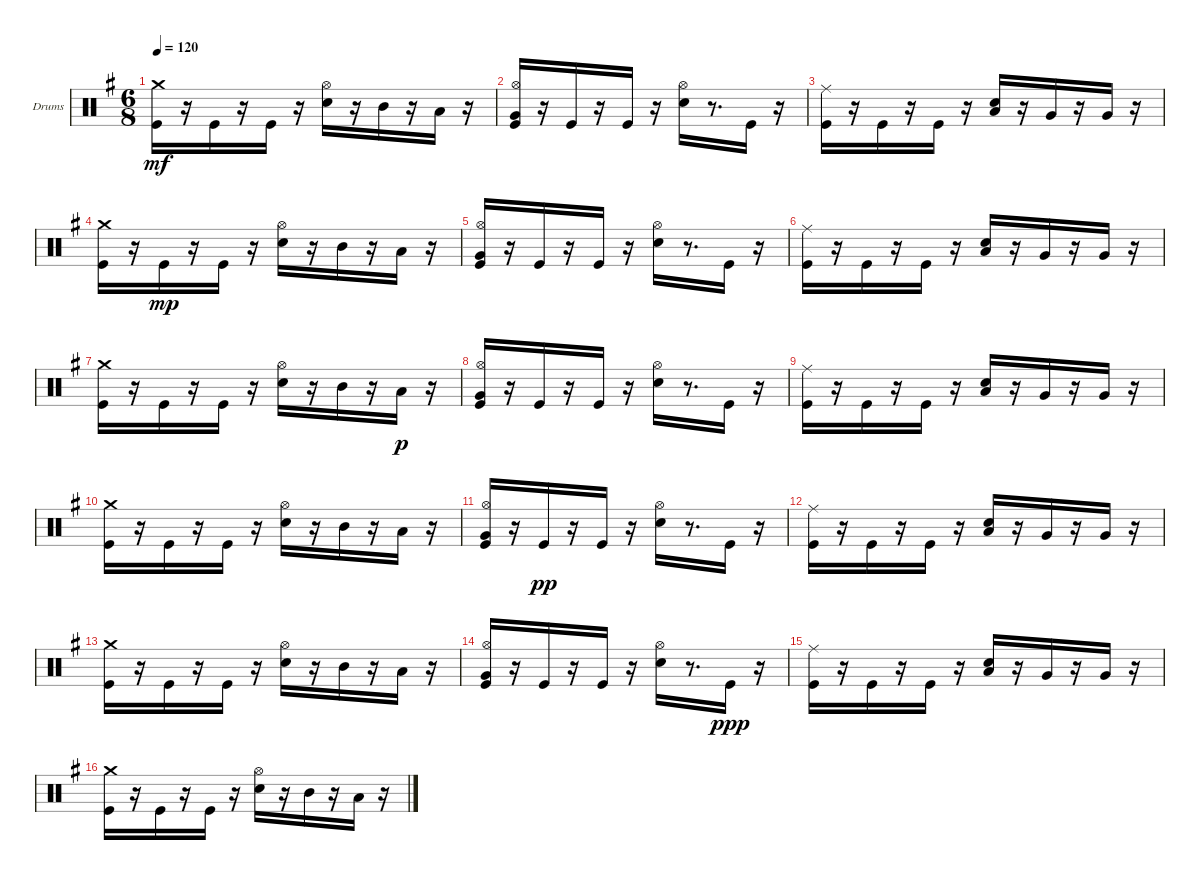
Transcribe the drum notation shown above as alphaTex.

\bracketExtendMode groupsimilarinstruments
\firstSystemTrackNameOrientation horizontal
\otherSystemsTrackNameOrientation horizontal
\track ("Drumkit" "Drums") {instrument percussion}
\staff {score}
\articulation defaults
\ts (6 8)
\tempo 120
\clef neutral
\ks eminor
("Crash medium (hit)" "Kick (hit)").16{dy mf} r.16 "Kick (hit)".16 r.16 "Kick (hit)".16 r.16 ("Hi-Hat (open)" "Snare (hit) 2").16 r.16 "Mid Tom (hit)".16 r.16 "Low Tom (hit)".16 r.16 |
("Hi-Hat (open)" "Very Low Tom (hit)" "Kick (hit)").16 r.16 "Kick (hit)".16 r.16 "Kick (hit)".16 r.16 ("Hi-Hat (open)" "Snare (hit) 2").16 r.8{d} "Kick (hit)".16 r.16 |
("Ride (middle)" "Kick (hit)").16 r.16 "Kick (hit)".16 r.16 "Kick (hit)".16 r.16 ("Low Tom (hit)" "Snare (hit) 2").16 r.16 "Very Low Tom (hit)".16 r.16 "Very Low Tom (hit)".16 r.16 |
("Crash medium (hit)" "Kick (hit)").16 r.16 "Kick (hit)".16{dy mp} r.16 "Kick (hit)".16 r.16 ("Hi-Hat (open)" "Snare (hit) 2").16 r.16 "Mid Tom (hit)".16 r.16 "Low Tom (hit)".16 r.16 |
("Hi-Hat (open)" "Very Low Tom (hit)" "Kick (hit)").16 r.16 "Kick (hit)".16 r.16 "Kick (hit)".16 r.16 ("Hi-Hat (open)" "Snare (hit) 2").16 r.8{d} "Kick (hit)".16 r.16 |
("Ride (middle)" "Kick (hit)").16 r.16 "Kick (hit)".16 r.16 "Kick (hit)".16 r.16 ("Low Tom (hit)" "Snare (hit) 2").16 r.16 "Very Low Tom (hit)".16 r.16 "Very Low Tom (hit)".16 r.16 |
("Crash medium (hit)" "Kick (hit)").16 r.16 "Kick (hit)".16 r.16 "Kick (hit)".16 r.16 ("Hi-Hat (open)" "Snare (hit) 2").16 r.16 "Mid Tom (hit)".16 r.16 "Low Tom (hit)".16{dy p} r.16 |
("Hi-Hat (open)" "Very Low Tom (hit)" "Kick (hit)").16 r.16 "Kick (hit)".16 r.16 "Kick (hit)".16 r.16 ("Hi-Hat (open)" "Snare (hit) 2").16 r.8{d} "Kick (hit)".16 r.16 |
("Ride (middle)" "Kick (hit)").16 r.16 "Kick (hit)".16 r.16 "Kick (hit)".16 r.16 ("Low Tom (hit)" "Snare (hit) 2").16 r.16 "Very Low Tom (hit)".16 r.16 "Very Low Tom (hit)".16 r.16 |
("Crash medium (hit)" "Kick (hit)").16 r.16 "Kick (hit)".16 r.16 "Kick (hit)".16 r.16 ("Hi-Hat (open)" "Snare (hit) 2").16 r.16 "Mid Tom (hit)".16 r.16 "Low Tom (hit)".16 r.16 |
("Hi-Hat (open)" "Very Low Tom (hit)" "Kick (hit)").16 r.16 "Kick (hit)".16{dy pp} r.16 "Kick (hit)".16 r.16 ("Hi-Hat (open)" "Snare (hit) 2").16 r.8{d} "Kick (hit)".16 r.16 |
("Ride (middle)" "Kick (hit)").16 r.16 "Kick (hit)".16 r.16 "Kick (hit)".16 r.16 ("Low Tom (hit)" "Snare (hit) 2").16 r.16 "Very Low Tom (hit)".16 r.16 "Very Low Tom (hit)".16 r.16 |
("Crash medium (hit)" "Kick (hit)").16 r.16 "Kick (hit)".16 r.16 "Kick (hit)".16 r.16 ("Hi-Hat (open)" "Snare (hit) 2").16 r.16 "Mid Tom (hit)".16 r.16 "Low Tom (hit)".16 r.16 |
("Hi-Hat (open)" "Very Low Tom (hit)" "Kick (hit)").16 r.16 "Kick (hit)".16 r.16 "Kick (hit)".16 r.16 ("Hi-Hat (open)" "Snare (hit) 2").16 r.8{d} "Kick (hit)".16{dy ppp} r.16 |
("Ride (middle)" "Kick (hit)").16 r.16 "Kick (hit)".16 r.16 "Kick (hit)".16 r.16 ("Low Tom (hit)" "Snare (hit) 2").16 r.16 "Very Low Tom (hit)".16 r.16 "Very Low Tom (hit)".16 r.16 |
("Crash medium (hit)" "Kick (hit)").16 r.16 "Kick (hit)".16 r.16 "Kick (hit)".16 r.16 ("Hi-Hat (open)" "Snare (hit) 2").16 r.16 "Mid Tom (hit)".16 r.16 "Low Tom (hit)".16 r.16
